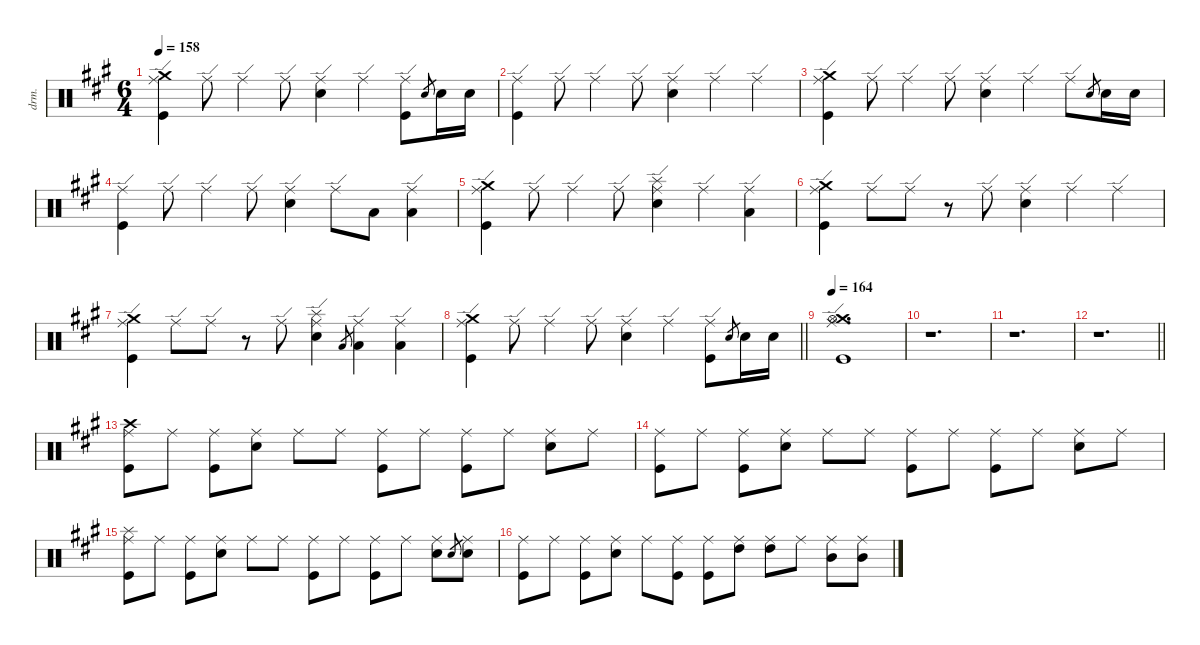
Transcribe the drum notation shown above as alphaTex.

\defaultSystemsLayout 4
\hideDynamics
\bracketExtendMode groupsimilarinstruments
\otherSystemsTrackNameOrientation horizontal
\track ("Drums" "drm.") {defaultSystemsLayout 4 instrument percussion}
\staff {score}
\articulation defaults
\ts (6 4)
\tempo 158
\clef neutral
\ks f#minor
("Crash medium (hit)"{acc forcenatural} "Ride (edge)"{acc forcenatural} "Kick (hit)"{acc forcenatural}).4{dy f beam Down} "Ride (edge)"{acc forcenatural}.8{dy mf beam Down} "Ride (edge)"{acc forcenatural}.4{dy mp beam Down} "Ride (edge)"{acc forcenatural}.8{dy p beam Down} ("Ride (edge)"{acc forcenatural} "Snare (hit) 2"{acc forcenatural}).4{dy f beam Down} "Ride (edge)"{acc forcenatural}.4{dy mf beam Down} ("Ride (edge)"{acc forcenatural} "Kick (hit)"{acc forcenatural}).8{dy f beam Down} "Electric Snare (hit)"{acc forcenatural}.8{gr dy ppp beam Up} "Snare (hit) 2"{acc forcenatural}.16{dy p beam Down} "Snare (hit) 2"{acc forcenatural}.16{beam Down} |
("Ride (edge)"{acc forcenatural} "Kick (hit)"{acc forcenatural}).4{dy f beam Down} "Ride (edge)"{acc forcenatural}.8{dy mf beam Down} "Ride (edge)"{acc forcenatural}.4{dy mp beam Down} "Ride (edge)"{acc forcenatural}.8{dy p beam Down} ("Ride (edge)"{acc forcenatural} "Snare (hit) 2"{acc forcenatural}).4{dy f beam Down} "Ride (edge)"{acc forcenatural}.4{dy mf beam Down} "Ride (edge)"{acc forcenatural}.4{dy p beam Down} |
("Crash medium (hit)"{acc forcenatural} "Ride (edge)"{acc forcenatural} "Kick (hit)"{acc forcenatural}).4{dy f beam Down} "Ride (edge)"{acc forcenatural}.8{dy mf beam Down} "Ride (edge)"{acc forcenatural}.4{dy mp beam Down} "Ride (edge)"{acc forcenatural}.8{dy p beam Down} ("Ride (edge)"{acc forcenatural} "Snare (hit) 2"{acc forcenatural}).4{dy f beam Down} "Ride (edge)"{acc forcenatural}.4{dy mf beam Down} "Ride (edge)"{acc forcenatural}.8{dy p beam Down} "Electric Snare (hit)"{acc forcenatural}.8{gr dy ppp beam Up} "Snare (hit) 2"{acc forcenatural}.16{dy p beam Down} "Snare (hit) 2"{acc forcenatural}.16{beam Down} |
("Ride (edge)"{acc forcenatural} "Kick (hit)"{acc forcenatural}).4{dy f beam Down} "Ride (edge)"{acc forcenatural}.8{dy mf beam Down} "Ride (edge)"{acc forcenatural}.4{dy mp beam Down} "Ride (edge)"{acc forcenatural}.8{dy p beam Down} ("Ride (edge)"{acc forcenatural} "Snare (hit) 2"{acc forcenatural}).4{dy f beam Down} "Ride (edge)"{acc forcenatural}.8{dy mf beam Down} "Low Tom (hit)"{acc forcenatural}.8{beam Up} ("Ride (edge)"{acc forcenatural} "Low Tom (hit)"{acc forcenatural}).4{dy f beam Down} |
("Crash medium (hit)"{acc forcenatural} "Ride (edge)"{acc forcenatural} "Kick (hit)"{acc forcenatural}).4{beam Down} "Ride (edge)"{acc forcenatural}.8{dy p beam Down} "Ride (edge)"{acc forcenatural}.4{beam Down} "Ride (edge)"{acc forcenatural}.8{beam Down} ("Splash (hit)"{acc forcenatural} "Ride (edge)"{acc forcenatural} "Snare (hit) 2"{acc forcenatural}).4{dy mf beam Down} "Ride (edge)"{acc forcenatural}.4{dy p beam Down} ("Ride (edge)"{acc forcenatural} "Low Tom (hit)"{acc forcenatural}).4{dy f beam Down} |
("Crash medium (hit)"{acc forcenatural} "Ride (edge)"{acc forcenatural} "Kick (hit)"{acc forcenatural}).4{beam Down} "Ride (edge)"{acc forcenatural}.8{dy p beam Down} "Ride (edge)"{acc forcenatural}.8{beam Down} r.8{beam Down} "Ride (edge)"{acc forcenatural}.8{beam Down} ("Ride (edge)"{acc forcenatural} "Snare (hit) 2"{acc forcenatural}).4{dy f beam Down} "Ride (edge)"{acc forcenatural}.4{dy p beam Down} "Ride (edge)"{acc forcenatural}.4{beam Down} |
("Crash medium (hit)"{acc forcenatural} "Ride (edge)"{acc forcenatural} "Kick (hit)"{acc forcenatural}).4{dy f beam Down} "Ride (edge)"{acc forcenatural}.8{dy p beam Down} "Ride (edge)"{acc forcenatural}.8{beam Down} r.8{beam Down} "Ride (edge)"{acc forcenatural}.8{beam Down} ("Splash (hit)"{acc forcenatural} "Ride (edge)"{acc forcenatural} "Snare (hit) 2"{acc forcenatural}).4{dy mf beam Down} "Low Tom (hit)"{acc forcenatural}.8{gr dy mp beam Up} ("Ride (edge)"{acc forcenatural} "Low Tom (hit)"{acc forcenatural}).4{dy f beam Down} ("Ride (edge)"{acc forcenatural} "Low Tom (hit)"{acc forcenatural}).4{beam Down} |
\barLineRight lightlight
("Crash medium (hit)"{acc forcenatural} "Ride (edge)"{acc forcenatural} "Kick (hit)"{acc forcenatural}).4{beam Down} "Ride (edge)"{acc forcenatural}.8{dy p beam Down} "Ride (edge)"{acc forcenatural}.4{beam Down} "Ride (edge)"{acc forcenatural}.8{beam Down} ("Ride (edge)"{acc forcenatural} "Snare (hit) 2"{acc forcenatural}).4{dy f beam Down} "Ride (edge)"{acc forcenatural}.4{dy mf beam Down} ("Ride (edge)"{acc forcenatural} "Kick (hit)"{acc forcenatural}).8{dy f beam Down} "Electric Snare (hit)"{acc forcenatural}.8{gr dy ppp beam Up} "Snare (hit) 2"{acc forcenatural}.16{dy p beam Down} "Snare (hit) 2"{acc forcenatural}.16{beam Down} |
\tempo 164
("Crash medium (hit)"{acc forcenatural} "Hi-Hat (open)"{acc forcenatural} "Ride (edge)"{acc forcenatural} "Kick (hit)"{acc forcenatural}).1{d dy mf beam Down} |
r.1{d beam Down} |
r.1{d beam Down} |
\barLineRight lightlight
r.1{d beam Down} |
("Crash high (hit)"{acc forcenatural} "Ride (middle)"{acc forcenatural} "Kick (hit)"{acc forcenatural}).8{dy f beam Down} "Ride (middle)"{acc forcenatural}.8{beam Down} ("Ride (middle)"{acc forcenatural} "Kick (hit)"{acc forcenatural}).8{beam Down} ("Ride (middle)"{acc forcenatural} "Snare (hit) 2"{acc forcenatural}).8{beam Down} "Ride (middle)"{acc forcenatural}.8{beam Down} "Ride (middle)"{acc forcenatural}.8{beam Down} ("Ride (middle)"{acc forcenatural} "Kick (hit)"{acc forcenatural}).8{beam Down} "Ride (middle)"{acc forcenatural}.8{beam Down} ("Ride (middle)"{acc forcenatural} "Kick (hit)"{acc forcenatural}).8{beam Down} "Ride (middle)"{acc forcenatural}.8{beam Down} ("Ride (middle)"{acc forcenatural} "Snare (hit) 2"{acc forcenatural}).8{beam Down} "Ride (middle)"{acc forcenatural}.8{beam Down} |
("Ride (middle)"{acc forcenatural} "Kick (hit)"{acc forcenatural}).8{beam Down} "Ride (middle)"{acc forcenatural}.8{beam Down} ("Ride (middle)"{acc forcenatural} "Kick (hit)"{acc forcenatural}).8{beam Down} ("Ride (middle)"{acc forcenatural} "Snare (hit) 2"{acc forcenatural}).8{beam Down} "Ride (middle)"{acc forcenatural}.8{beam Down} "Ride (middle)"{acc forcenatural}.8{beam Down} ("Ride (middle)"{acc forcenatural} "Kick (hit)"{acc forcenatural}).8{beam Down} "Ride (middle)"{acc forcenatural}.8{beam Down} ("Ride (middle)"{acc forcenatural} "Kick (hit)"{acc forcenatural}).8{beam Down} "Ride (middle)"{acc forcenatural}.8{beam Down} ("Ride (middle)"{acc forcenatural} "Snare (hit) 2"{acc forcenatural}).8{beam Down} "Ride (middle)"{acc forcenatural}.8{beam Down} |
("Splash (hit)"{acc forcenatural} "Ride (middle)"{acc forcenatural} "Kick (hit)"{acc forcenatural}).8{beam Down} "Ride (middle)"{acc forcenatural}.8{beam Down} ("Ride (middle)"{acc forcenatural} "Kick (hit)"{acc forcenatural}).8{beam Down} ("Ride (middle)"{acc forcenatural} "Snare (hit) 2"{acc forcenatural}).8{beam Down} "Ride (middle)"{acc forcenatural}.8{beam Down} "Ride (middle)"{acc forcenatural}.8{beam Down} ("Ride (middle)"{acc forcenatural} "Kick (hit)"{acc forcenatural}).8{beam Down} "Ride (middle)"{acc forcenatural}.8{beam Down} ("Ride (middle)"{acc forcenatural} "Kick (hit)"{acc forcenatural}).8{beam Down} "Ride (middle)"{acc forcenatural}.8{beam Down} ("Ride (middle)"{acc forcenatural} "Snare (hit) 2"{acc forcenatural}).8{beam Down} "Electric Snare (hit)"{acc forcenatural}.8{gr dy pp beam Up} ("Ride (middle)"{acc forcenatural} "Snare (hit) 2"{acc forcenatural}).8{dy f beam Down} |
("Ride (middle)"{acc forcenatural} "Kick (hit)"{acc forcenatural}).8{beam Down} "Ride (middle)"{acc forcenatural}.8{beam Down} ("Ride (middle)"{acc forcenatural} "Kick (hit)"{acc forcenatural}).8{beam Down} ("Ride (middle)"{acc forcenatural} "Snare (hit) 2"{acc forcenatural}).8{beam Down} "Ride (middle)"{acc forcenatural}.8{beam Down} ("Ride (middle)"{acc forcenatural} "Kick (hit)"{acc forcenatural}).8{beam Down} ("Ride (middle)"{acc forcenatural} "Kick (hit)"{acc forcenatural}).8{beam Down} ("Ride (middle)"{acc forcenatural} "High Tom (hit)"{acc forcenatural}).8{beam Down} ("Ride (middle)"{acc forcenatural} "High Tom (hit)"{acc forcenatural}).8{beam Down} "Ride (middle)"{acc forcenatural}.8{beam Down} ("Ride (middle)"{acc forcenatural} "Mid Tom (hit)"{acc forcenatural}).8{beam Down} ("Ride (middle)"{acc forcenatural} "Mid Tom (hit)"{acc forcenatural}).8{beam Down}
